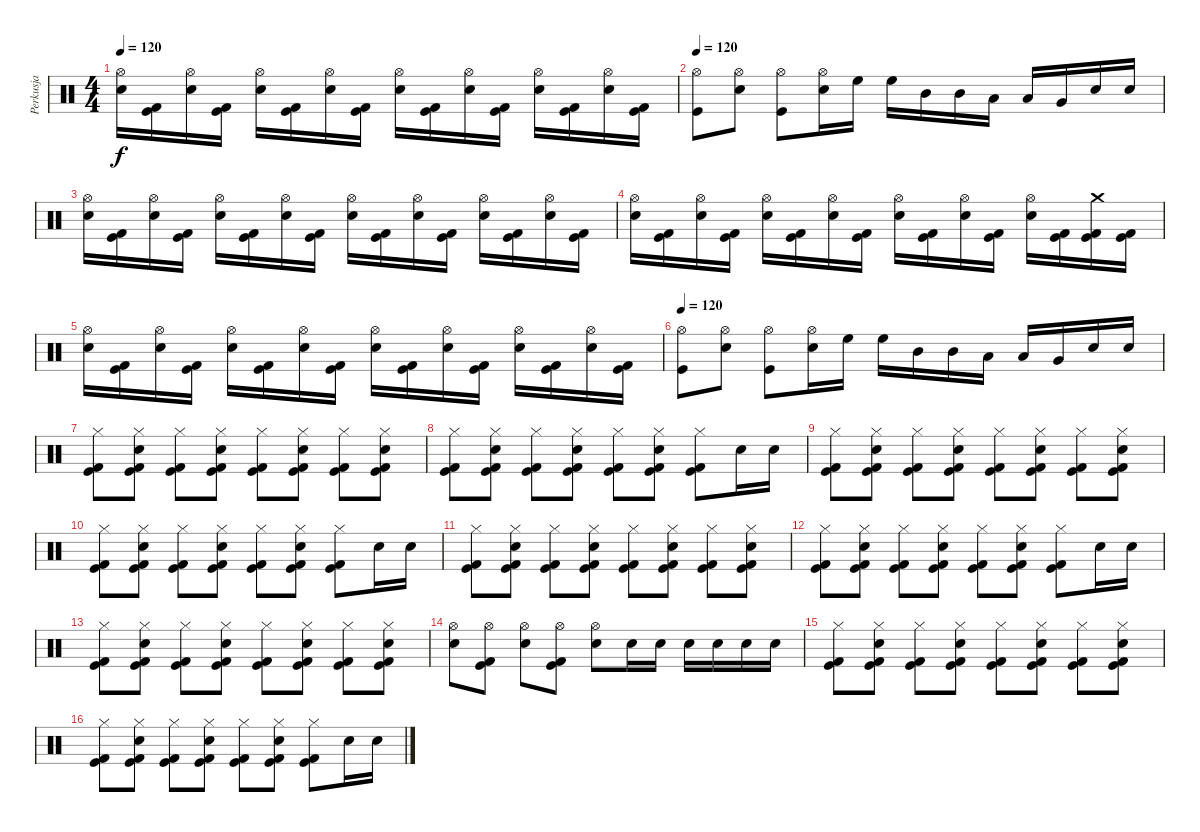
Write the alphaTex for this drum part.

\track ("Perkusja" "Perkusja") {instrument percussion}
\staff {score}
\articulation defaults
\ts (4 4)
\tempo 120
\clef neutral
\ks c
("Hi-Hat (open)" "Electric Snare (hit)").16{dy f} ("Kick (hit)" "Kick (hit) 2").16 ("Hi-Hat (open)" "Electric Snare (hit)").16 ("Kick (hit)" "Kick (hit) 2").16 ("Hi-Hat (open)" "Electric Snare (hit)").16 ("Kick (hit)" "Kick (hit) 2").16 ("Hi-Hat (open)" "Electric Snare (hit)").16 ("Kick (hit)" "Kick (hit) 2").16 ("Hi-Hat (open)" "Electric Snare (hit)").16 ("Kick (hit)" "Kick (hit) 2").16 ("Hi-Hat (open)" "Electric Snare (hit)").16 ("Kick (hit)" "Kick (hit) 2").16 ("Hi-Hat (open)" "Electric Snare (hit)").16 ("Kick (hit)" "Kick (hit) 2").16 ("Hi-Hat (open)" "Electric Snare (hit)").16 ("Kick (hit)" "Kick (hit) 2").16 |
\tempo 120
("Hi-Hat (open)" "Kick (hit)").8 ("Hi-Hat (open)" "Snare (hit) 2").8 ("Hi-Hat (open)" "Kick (hit)").8 ("Hi-Hat (open)" "Snare (hit) 2").16 "High Floor Tom (hit)".16 "High Floor Tom (hit)".16 "Mid Tom (hit)".16 "Mid Tom (hit)".16 "Low Tom (hit)".16 "Low Tom (hit)".16 "Very Low Tom (hit)".16 "Electric Snare (hit)".16 "Snare (hit) 2".16 |
("Hi-Hat (open)" "Electric Snare (hit)").16 ("Kick (hit)" "Kick (hit) 2").16 ("Hi-Hat (open)" "Electric Snare (hit)").16 ("Kick (hit)" "Kick (hit) 2").16 ("Hi-Hat (open)" "Electric Snare (hit)").16 ("Kick (hit)" "Kick (hit) 2").16 ("Hi-Hat (open)" "Electric Snare (hit)").16 ("Kick (hit)" "Kick (hit) 2").16 ("Hi-Hat (open)" "Electric Snare (hit)").16 ("Kick (hit)" "Kick (hit) 2").16 ("Hi-Hat (open)" "Electric Snare (hit)").16 ("Kick (hit)" "Kick (hit) 2").16 ("Hi-Hat (open)" "Electric Snare (hit)").16 ("Kick (hit)" "Kick (hit) 2").16 ("Hi-Hat (open)" "Electric Snare (hit)").16 ("Kick (hit)" "Kick (hit) 2").16 |
("Hi-Hat (open)" "Electric Snare (hit)").16 ("Kick (hit)" "Kick (hit) 2").16 ("Hi-Hat (open)" "Electric Snare (hit)").16 ("Kick (hit)" "Kick (hit) 2").16 ("Hi-Hat (open)" "Electric Snare (hit)").16 ("Kick (hit)" "Kick (hit) 2").16 ("Hi-Hat (open)" "Electric Snare (hit)").16 ("Kick (hit)" "Kick (hit) 2").16 ("Hi-Hat (open)" "Electric Snare (hit)").16 ("Kick (hit)" "Kick (hit) 2").16 ("Hi-Hat (open)" "Electric Snare (hit)").16 ("Kick (hit)" "Kick (hit) 2").16 ("Hi-Hat (open)" "Electric Snare (hit)").16 ("Kick (hit)" "Kick (hit) 2").16 ("Crash medium (hit)" "Kick (hit) 2" "Kick (hit)").16 ("Kick (hit) 2" "Kick (hit)").16 |
("Hi-Hat (open)" "Electric Snare (hit)").16 ("Kick (hit)" "Kick (hit) 2").16 ("Hi-Hat (open)" "Electric Snare (hit)").16 ("Kick (hit)" "Kick (hit) 2").16 ("Hi-Hat (open)" "Electric Snare (hit)").16 ("Kick (hit)" "Kick (hit) 2").16 ("Hi-Hat (open)" "Electric Snare (hit)").16 ("Kick (hit)" "Kick (hit) 2").16 ("Hi-Hat (open)" "Electric Snare (hit)").16 ("Kick (hit)" "Kick (hit) 2").16 ("Hi-Hat (open)" "Electric Snare (hit)").16 ("Kick (hit)" "Kick (hit) 2").16 ("Hi-Hat (open)" "Electric Snare (hit)").16 ("Kick (hit)" "Kick (hit) 2").16 ("Hi-Hat (open)" "Electric Snare (hit)").16 ("Kick (hit)" "Kick (hit) 2").16 |
\tempo 120
("Hi-Hat (open)" "Kick (hit)").8 ("Hi-Hat (open)" "Snare (hit) 2").8 ("Hi-Hat (open)" "Kick (hit)").8 ("Hi-Hat (open)" "Snare (hit) 2").16 "High Floor Tom (hit)".16 "High Floor Tom (hit)".16 "Mid Tom (hit)".16 "Mid Tom (hit)".16 "Low Tom (hit)".16 "Low Tom (hit)".16 "Very Low Tom (hit)".16 "Electric Snare (hit)".16 "Snare (hit) 2".16 |
("Hi-Hat (closed)" "Kick (hit)" "Kick (hit) 2").8 ("Hi-Hat (closed)" "Snare (hit) 2" "Kick (hit)" "Kick (hit) 2").8 ("Hi-Hat (closed)" "Kick (hit)" "Kick (hit) 2").8 ("Hi-Hat (closed)" "Snare (hit) 2" "Kick (hit)" "Kick (hit) 2").8 ("Hi-Hat (closed)" "Kick (hit)" "Kick (hit) 2").8 ("Hi-Hat (closed)" "Snare (hit) 2" "Kick (hit)" "Kick (hit) 2").8 ("Hi-Hat (closed)" "Kick (hit)" "Kick (hit) 2").8 ("Hi-Hat (closed)" "Snare (hit) 2" "Kick (hit)" "Kick (hit) 2").8 |
("Hi-Hat (closed)" "Kick (hit)" "Kick (hit) 2").8 ("Hi-Hat (closed)" "Snare (hit) 2" "Kick (hit)" "Kick (hit) 2").8 ("Hi-Hat (closed)" "Kick (hit)" "Kick (hit) 2").8 ("Hi-Hat (closed)" "Snare (hit) 2" "Kick (hit)" "Kick (hit) 2").8 ("Hi-Hat (closed)" "Kick (hit)" "Kick (hit) 2").8 ("Hi-Hat (closed)" "Snare (hit) 2" "Kick (hit)" "Kick (hit) 2").8 ("Hi-Hat (closed)" "Kick (hit)" "Kick (hit) 2").8 "Snare (hit) 2".16 "Snare (hit) 2".16 |
("Hi-Hat (closed)" "Kick (hit)" "Kick (hit) 2").8 ("Hi-Hat (closed)" "Snare (hit) 2" "Kick (hit)" "Kick (hit) 2").8 ("Hi-Hat (closed)" "Kick (hit)" "Kick (hit) 2").8 ("Hi-Hat (closed)" "Snare (hit) 2" "Kick (hit)" "Kick (hit) 2").8 ("Hi-Hat (closed)" "Kick (hit)" "Kick (hit) 2").8 ("Hi-Hat (closed)" "Snare (hit) 2" "Kick (hit)" "Kick (hit) 2").8 ("Hi-Hat (closed)" "Kick (hit)" "Kick (hit) 2").8 ("Hi-Hat (closed)" "Snare (hit) 2" "Kick (hit)" "Kick (hit) 2").8 |
("Hi-Hat (closed)" "Kick (hit)" "Kick (hit) 2").8 ("Hi-Hat (closed)" "Snare (hit) 2" "Kick (hit)" "Kick (hit) 2").8 ("Hi-Hat (closed)" "Kick (hit)" "Kick (hit) 2").8 ("Hi-Hat (closed)" "Snare (hit) 2" "Kick (hit)" "Kick (hit) 2").8 ("Hi-Hat (closed)" "Kick (hit)" "Kick (hit) 2").8 ("Hi-Hat (closed)" "Snare (hit) 2" "Kick (hit)" "Kick (hit) 2").8 ("Hi-Hat (closed)" "Kick (hit)" "Kick (hit) 2").8 "Snare (hit) 2".16 "Snare (hit) 2".16 |
("Hi-Hat (closed)" "Kick (hit)" "Kick (hit) 2").8 ("Hi-Hat (closed)" "Snare (hit) 2" "Kick (hit)" "Kick (hit) 2").8 ("Hi-Hat (closed)" "Kick (hit)" "Kick (hit) 2").8 ("Hi-Hat (closed)" "Snare (hit) 2" "Kick (hit)" "Kick (hit) 2").8 ("Hi-Hat (closed)" "Kick (hit)" "Kick (hit) 2").8 ("Hi-Hat (closed)" "Snare (hit) 2" "Kick (hit)" "Kick (hit) 2").8 ("Hi-Hat (closed)" "Kick (hit)" "Kick (hit) 2").8 ("Hi-Hat (closed)" "Snare (hit) 2" "Kick (hit)" "Kick (hit) 2").8 |
("Hi-Hat (closed)" "Kick (hit)" "Kick (hit) 2").8 ("Hi-Hat (closed)" "Snare (hit) 2" "Kick (hit)" "Kick (hit) 2").8 ("Hi-Hat (closed)" "Kick (hit)" "Kick (hit) 2").8 ("Hi-Hat (closed)" "Snare (hit) 2" "Kick (hit)" "Kick (hit) 2").8 ("Hi-Hat (closed)" "Kick (hit)" "Kick (hit) 2").8 ("Hi-Hat (closed)" "Snare (hit) 2" "Kick (hit)" "Kick (hit) 2").8 ("Hi-Hat (closed)" "Kick (hit)" "Kick (hit) 2").8 "Snare (hit) 2".16 "Snare (hit) 2".16 |
("Hi-Hat (closed)" "Kick (hit)" "Kick (hit) 2").8 ("Hi-Hat (closed)" "Snare (hit) 2" "Kick (hit)" "Kick (hit) 2").8 ("Hi-Hat (closed)" "Kick (hit)" "Kick (hit) 2").8 ("Hi-Hat (closed)" "Snare (hit) 2" "Kick (hit)" "Kick (hit) 2").8 ("Hi-Hat (closed)" "Kick (hit)" "Kick (hit) 2").8 ("Hi-Hat (closed)" "Snare (hit) 2" "Kick (hit)" "Kick (hit) 2").8 ("Hi-Hat (closed)" "Kick (hit)" "Kick (hit) 2").8 ("Hi-Hat (closed)" "Snare (hit) 2" "Kick (hit)" "Kick (hit) 2").8 |
("Hi-Hat (open)" "Electric Snare (hit)").8 ("Hi-Hat (open)" "Kick (hit)" "Kick (hit) 2").8 ("Hi-Hat (open)" "Electric Snare (hit)").8 ("Hi-Hat (open)" "Kick (hit)" "Kick (hit) 2").8 ("Hi-Hat (open)" "Electric Snare (hit)").8 "Snare (hit) 2".16 "Snare (hit) 2".16 "Snare (hit) 2".16 "Snare (hit) 2".16 "Snare (hit) 2".16 "Snare (hit) 2".16 |
("Hi-Hat (closed)" "Kick (hit)" "Kick (hit) 2").8 ("Hi-Hat (closed)" "Snare (hit) 2" "Kick (hit)" "Kick (hit) 2").8 ("Hi-Hat (closed)" "Kick (hit)" "Kick (hit) 2").8 ("Hi-Hat (closed)" "Snare (hit) 2" "Kick (hit)" "Kick (hit) 2").8 ("Hi-Hat (closed)" "Kick (hit)" "Kick (hit) 2").8 ("Hi-Hat (closed)" "Snare (hit) 2" "Kick (hit)" "Kick (hit) 2").8 ("Hi-Hat (closed)" "Kick (hit)" "Kick (hit) 2").8 ("Hi-Hat (closed)" "Snare (hit) 2" "Kick (hit)" "Kick (hit) 2").8 |
("Hi-Hat (closed)" "Kick (hit)" "Kick (hit) 2").8 ("Hi-Hat (closed)" "Snare (hit) 2" "Kick (hit)" "Kick (hit) 2").8 ("Hi-Hat (closed)" "Kick (hit)" "Kick (hit) 2").8 ("Hi-Hat (closed)" "Snare (hit) 2" "Kick (hit)" "Kick (hit) 2").8 ("Hi-Hat (closed)" "Kick (hit)" "Kick (hit) 2").8 ("Hi-Hat (closed)" "Snare (hit) 2" "Kick (hit)" "Kick (hit) 2").8 ("Hi-Hat (closed)" "Kick (hit)" "Kick (hit) 2").8 "Snare (hit) 2".16 "Snare (hit) 2".16
